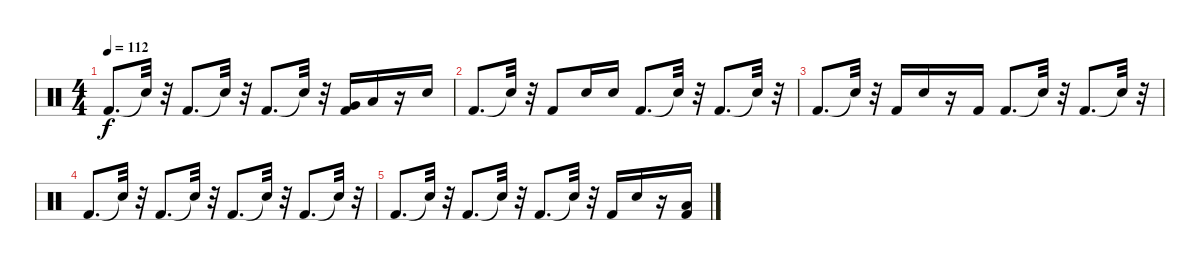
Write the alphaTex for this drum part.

\track "" {instrument percussion}
\staff {score}
\articulation defaults
\ts (4 4)
\tempo 112
\clef neutral
\ks c "Kick (hit) 2".8{d dy f} "Snare (hit)"{t}.32
r.32 "Kick (hit) 2".8{d} "Snare (hit)"{t}.32 r.32 "Kick (hit) 2".8{d} "Snare (hit)"{t}.32 r.32 ("Kick (hit) 2" "Very Low Tom (hit)").16 "Low Floor Tom (hit)".16 r.16 "Snare (hit) 2".16 |
"Kick (hit) 2".8{d} "Snare (hit)"{t}.32 r.32 "Kick (hit) 2".8 "Snare (hit) 2".16 "Snare (hit) 2".16 "Kick (hit) 2".8{d} "Snare (hit)"{t}.32 r.32 "Kick (hit) 2".8{d} "Snare (hit)"{t}.32 r.32 |
"Kick (hit) 2".8{d} "Snare (hit)"{t}.32 r.32 "Kick (hit) 2".16 "Snare (hit) 2".16 r.16 "Kick (hit) 2".16 "Kick (hit) 2".8{d} "Snare (hit)"{t}.32 r.32 "Kick (hit) 2".8{d} "Snare (hit)"{t}.32 r.32 |
"Kick (hit) 2".8{d} "Snare (hit)"{t}.32 r.32 "Kick (hit) 2".8{d} "Snare (hit)"{t}.32 r.32 "Kick (hit) 2".8{d} "Snare (hit)"{t}.32 r.32 "Kick (hit) 2".8{d} "Snare (hit)"{t}.32 r.32 |
"Kick (hit) 2".8{d} "Snare (hit)"{t}.32 r.32 "Kick (hit) 2".8{d} "Snare (hit)"{t}.32 r.32 "Kick (hit) 2".8{d} "Snare (hit)"{t}.32 r.32 "Kick (hit) 2".16 "Snare (hit) 2".16 r.16 ("Kick (hit) 2" "Low Floor Tom (hit)").16
